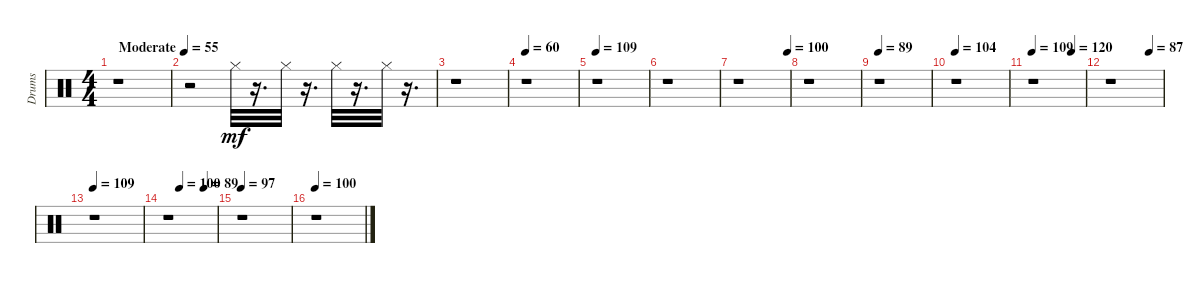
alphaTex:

\track ("Drums" "Drums") {instrument percussion}
\staff {score}
\articulation defaults
\ts (4 4)
\tempo (55 "Moderate")
\clef neutral
\ks c
r.1{dy mf} |
r.2 "Hi-Hat (closed)".32 r.16{d} "Hi-Hat (closed)".32 r.16{d} "Hi-Hat (closed)".32 r.16{d} "Hi-Hat (closed)".32 r.16{d} |
r.1 |
\tempo 60
r.1 |
\tempo 109
r.1 |
r.1 |
\tempo (100 0.96875)
r.1 |
r.1 |
\tempo 89
r.1 |
\tempo 104
r.1 |
\tempo 109
\tempo (120 0.75)
r.1 |
\tempo (87 0.75)
r.1 |
\tempo 109
r.1 |
\tempo (100 0.25)
\tempo (89 0.75)
r.1 |
\tempo 97
r.1 |
\tempo 100
r.1
